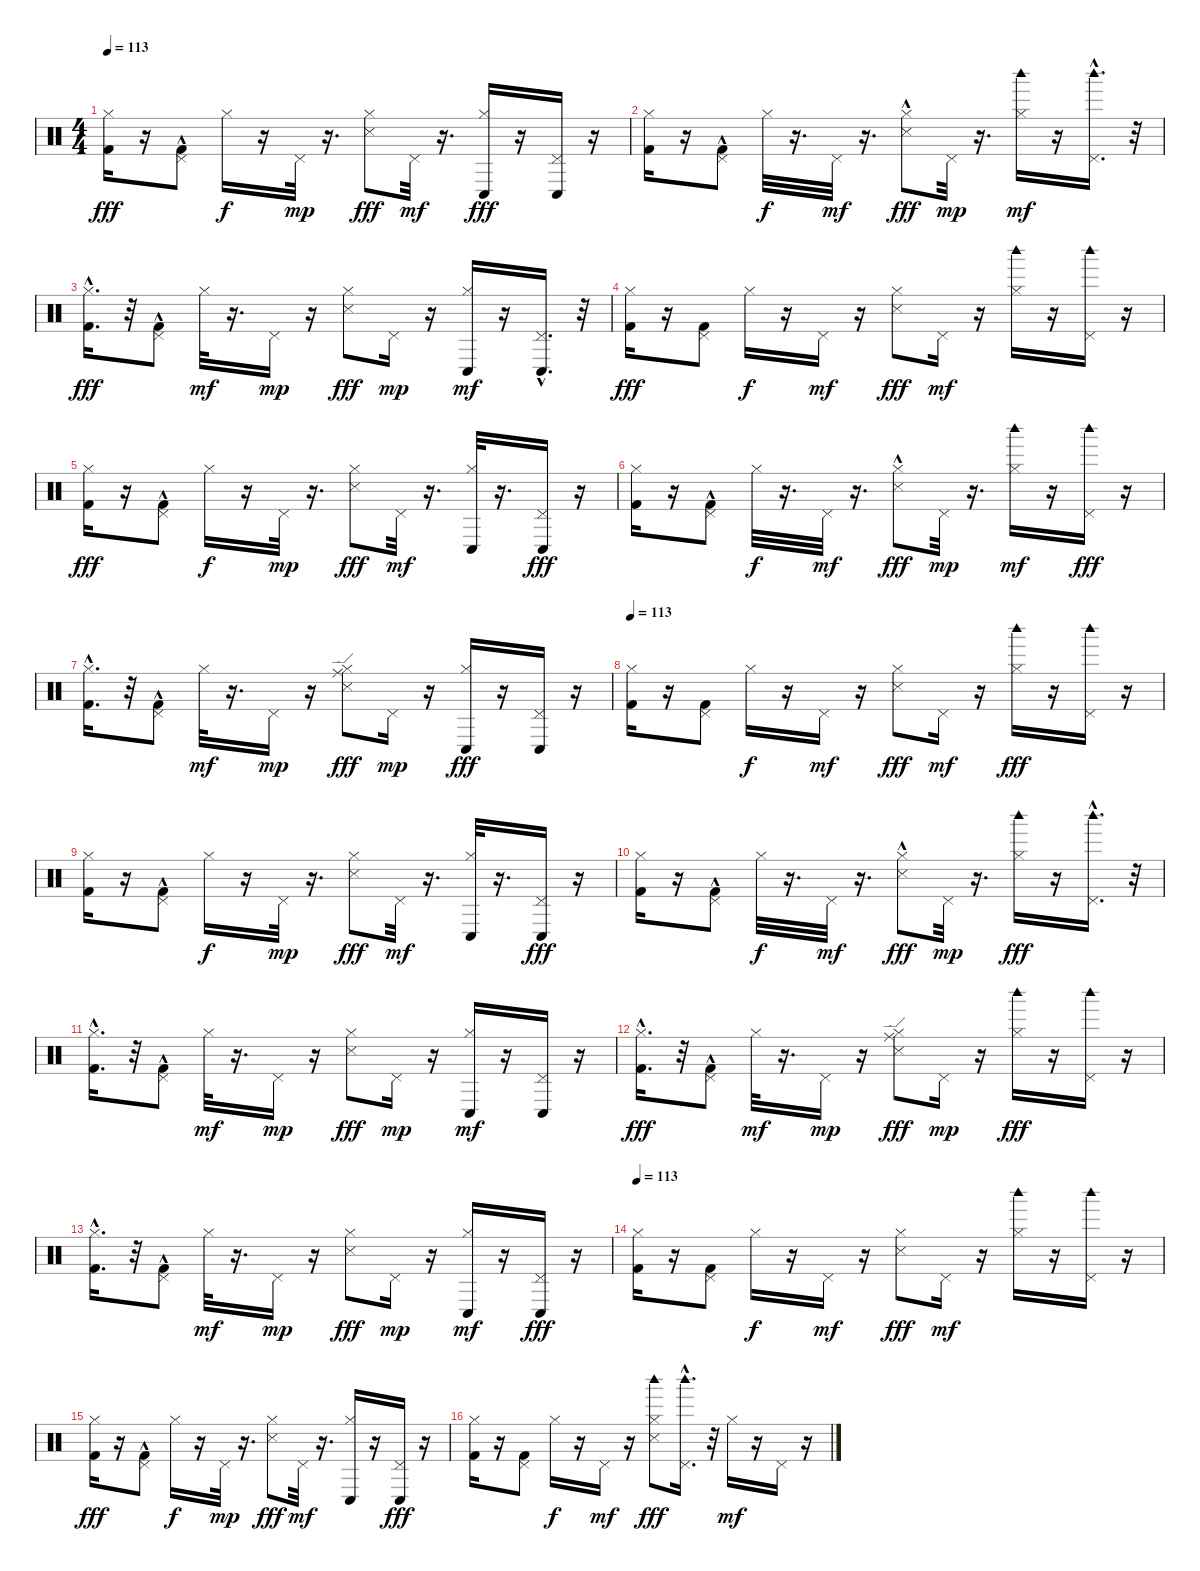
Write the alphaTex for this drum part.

\track "" {instrument percussion}
\staff {score}
\articulation defaults
\ts (4 4)
\tempo 113
\clef neutral
\ks c
("Hi-Hat (closed)" "Kick (hit) 2").16{dy fff} r.16 ("Pedal Hi-Hat (hit)" "Kick (hit) 2"{hac}).8 "Hi-Hat (closed)".16{dy f} r.16 "Pedal Hi-Hat (hit)".32{dy mp} r.16{d} ("Hi-Hat (closed)" "Snare (side stick) 3").8{dy fff} "Pedal Hi-Hat (hit)".32{dy mf} r.16{d} ("Hi-Hat (closed)" "Conga low (hit)").16{dy fff} r.16 ("Pedal Hi-Hat (hit)" "Conga low (hit)").16 r.16 |
("Hi-Hat (closed)" "Kick (hit) 2").16 r.16 ("Pedal Hi-Hat (hit)" "Kick (hit) 2"{hac}).8 "Hi-Hat (closed)".32{dy f} r.16{d} "Pedal Hi-Hat (hit)".32{dy mf} r.16{d} ("Hi-Hat (closed)" "Snare (side stick) 3"{hac}).8{dy fff} "Pedal Hi-Hat (hit)".32{dy mp} r.16{d} ("Woodblock high (hit)" "Hi-Hat (closed)").16{dy mf} r.16 ("Woodblock high (hit)"{hac} "Pedal Hi-Hat (hit)").16{d} r.32 |
("Hi-Hat (closed)" "Kick (hit) 2"{hac}).16{d dy fff} r.32 ("Pedal Hi-Hat (hit)" "Kick (hit) 2"{hac}).8 "Hi-Hat (closed)".32{dy mf} r.16{d} "Pedal Hi-Hat (hit)".16{dy mp} r.16 ("Hi-Hat (closed)" "Snare (side stick) 3").8{dy fff} "Pedal Hi-Hat (hit)".16{dy mp} r.16 ("Conga low (hit)" "Hi-Hat (closed)").16{dy mf} r.16 ("Conga low (hit)"{hac} "Pedal Hi-Hat (hit)").16{d} r.32 |
("Hi-Hat (closed)" "Kick (hit) 2").16{dy fff} r.16 ("Pedal Hi-Hat (hit)" "Kick (hit) 2").8 "Hi-Hat (closed)".16{dy f} r.16 "Pedal Hi-Hat (hit)".16{dy mf} r.16 ("Hi-Hat (closed)" "Snare (side stick) 3").8{dy fff} "Pedal Hi-Hat (hit)".16{dy mf} r.16 ("Woodblock high (hit)" "Hi-Hat (closed)").16 r.16 ("Woodblock high (hit)" "Pedal Hi-Hat (hit)").16 r.16 |
("Hi-Hat (closed)" "Kick (hit) 2").16{dy fff} r.16 ("Pedal Hi-Hat (hit)" "Kick (hit) 2"{hac}).8 "Hi-Hat (closed)".16{dy f} r.16 "Pedal Hi-Hat (hit)".32{dy mp} r.16{d} ("Hi-Hat (closed)" "Snare (side stick) 3").8{dy fff} "Pedal Hi-Hat (hit)".32{dy mf} r.16{d} ("Conga low (hit)" "Hi-Hat (closed)").32 r.16{d} ("Pedal Hi-Hat (hit)" "Conga low (hit)").16{dy fff} r.16 |
("Hi-Hat (closed)" "Kick (hit) 2").16 r.16 ("Pedal Hi-Hat (hit)" "Kick (hit) 2"{hac}).8 "Hi-Hat (closed)".32{dy f} r.16{d} "Pedal Hi-Hat (hit)".32{dy mf} r.16{d} ("Hi-Hat (closed)" "Snare (side stick) 3"{hac}).8{dy fff} "Pedal Hi-Hat (hit)".32{dy mp} r.16{d} ("Woodblock high (hit)" "Hi-Hat (closed)").16{dy mf} r.16 ("Pedal Hi-Hat (hit)" "Woodblock high (hit)").16{dy fff} r.16 |
("Hi-Hat (closed)" "Kick (hit) 2"{hac}).16{d} r.32 ("Pedal Hi-Hat (hit)" "Kick (hit) 2"{hac}).8 "Hi-Hat (closed)".32{dy mf} r.16{d} "Pedal Hi-Hat (hit)".16{dy mp} r.16 ("Ride (edge)" "Hi-Hat (closed)" "Snare (side stick) 3").8{dy fff} "Pedal Hi-Hat (hit)".16{dy mp} r.16 ("Hi-Hat (closed)" "Conga low (hit)").16{dy fff} r.16 ("Pedal Hi-Hat (hit)" "Conga low (hit)").16 r.16 |
\tempo 113
("Hi-Hat (closed)" "Kick (hit) 2").16 r.16 ("Pedal Hi-Hat (hit)" "Kick (hit) 2").8 "Hi-Hat (closed)".16{dy f} r.16 "Pedal Hi-Hat (hit)".16{dy mf} r.16 ("Hi-Hat (closed)" "Snare (side stick) 3").8{dy fff} "Pedal Hi-Hat (hit)".16{dy mf} r.16 ("Hi-Hat (closed)" "Woodblock high (hit)").16{dy fff} r.16 ("Pedal Hi-Hat (hit)" "Woodblock high (hit)").16 r.16 |
("Hi-Hat (closed)" "Kick (hit) 2").16 r.16 ("Pedal Hi-Hat (hit)" "Kick (hit) 2"{hac}).8 "Hi-Hat (closed)".16{dy f} r.16 "Pedal Hi-Hat (hit)".32{dy mp} r.16{d} ("Hi-Hat (closed)" "Snare (side stick) 3").8{dy fff} "Pedal Hi-Hat (hit)".32{dy mf} r.16{d} ("Conga low (hit)" "Hi-Hat (closed)").32 r.16{d} ("Pedal Hi-Hat (hit)" "Conga low (hit)").16{dy fff} r.16 |
("Hi-Hat (closed)" "Kick (hit) 2").16 r.16 ("Pedal Hi-Hat (hit)" "Kick (hit) 2"{hac}).8 "Hi-Hat (closed)".32{dy f} r.16{d} "Pedal Hi-Hat (hit)".32{dy mf} r.16{d} ("Hi-Hat (closed)" "Snare (side stick) 3"{hac}).8{dy fff} "Pedal Hi-Hat (hit)".32{dy mp} r.16{d} ("Hi-Hat (closed)" "Woodblock high (hit)").16{dy fff} r.16 ("Pedal Hi-Hat (hit)" "Woodblock high (hit)"{hac}).16{d} r.32 |
("Hi-Hat (closed)" "Kick (hit) 2"{hac}).16{d} r.32 ("Pedal Hi-Hat (hit)" "Kick (hit) 2"{hac}).8 "Hi-Hat (closed)".32{dy mf} r.16{d} "Pedal Hi-Hat (hit)".16{dy mp} r.16 ("Hi-Hat (closed)" "Snare (side stick) 3").8{dy fff} "Pedal Hi-Hat (hit)".16{dy mp} r.16 ("Conga low (hit)" "Hi-Hat (closed)").16{dy mf} r.16 ("Conga low (hit)" "Pedal Hi-Hat (hit)").16 r.16 |
("Hi-Hat (closed)" "Kick (hit) 2"{hac}).16{d dy fff} r.32 ("Pedal Hi-Hat (hit)" "Kick (hit) 2"{hac}).8 "Hi-Hat (closed)".32{dy mf} r.16{d} "Pedal Hi-Hat (hit)".16{dy mp} r.16 ("Ride (edge)" "Hi-Hat (closed)" "Snare (side stick) 3").8{dy fff} "Pedal Hi-Hat (hit)".16{dy mp} r.16 ("Hi-Hat (closed)" "Woodblock high (hit)").16{dy fff} r.16 ("Pedal Hi-Hat (hit)" "Woodblock high (hit)").16 r.16 |
("Hi-Hat (closed)" "Kick (hit) 2"{hac}).16{d} r.32 ("Pedal Hi-Hat (hit)" "Kick (hit) 2"{hac}).8 "Hi-Hat (closed)".32{dy mf} r.16{d} "Pedal Hi-Hat (hit)".16{dy mp} r.16 ("Hi-Hat (closed)" "Snare (side stick) 3").8{dy fff} "Pedal Hi-Hat (hit)".16{dy mp} r.16 ("Conga low (hit)" "Hi-Hat (closed)").16{dy mf} r.16 ("Pedal Hi-Hat (hit)" "Conga low (hit)").16{dy fff} r.16 |
\tempo 113
("Hi-Hat (closed)" "Kick (hit) 2").16 r.16 ("Pedal Hi-Hat (hit)" "Kick (hit) 2").8 "Hi-Hat (closed)".16{dy f} r.16 "Pedal Hi-Hat (hit)".16{dy mf} r.16 ("Hi-Hat (closed)" "Snare (side stick) 3").8{dy fff} "Pedal Hi-Hat (hit)".16{dy mf} r.16 ("Woodblock high (hit)" "Hi-Hat (closed)").16 r.16 ("Woodblock high (hit)" "Pedal Hi-Hat (hit)").16 r.16 |
("Hi-Hat (closed)" "Kick (hit) 2").16{dy fff} r.16 ("Pedal Hi-Hat (hit)" "Kick (hit) 2"{hac}).8 "Hi-Hat (closed)".16{dy f} r.16 "Pedal Hi-Hat (hit)".32{dy mp} r.16{d} ("Hi-Hat (closed)" "Snare (side stick) 3").8{dy fff} "Pedal Hi-Hat (hit)".32{dy mf} r.16{d} ("Conga low (hit)" "Hi-Hat (closed)").16 r.16 ("Pedal Hi-Hat (hit)" "Conga low (hit)").16{dy fff} r.16 |
("Hi-Hat (closed)" "Kick (hit) 2").16 r.16 ("Pedal Hi-Hat (hit)" "Kick (hit) 2").8 "Hi-Hat (closed)".16{dy f} r.16 "Pedal Hi-Hat (hit)".16{dy mf} r.16 ("Hi-Hat (closed)" "Snare (side stick) 3" "Woodblock high (hit)").8{dy fff} ("Pedal Hi-Hat (hit)" "Woodblock high (hit)"{hac}).16{d} r.32 "Hi-Hat (closed)".16{dy mf} r.16 "Pedal Hi-Hat (hit)".16 r.16
